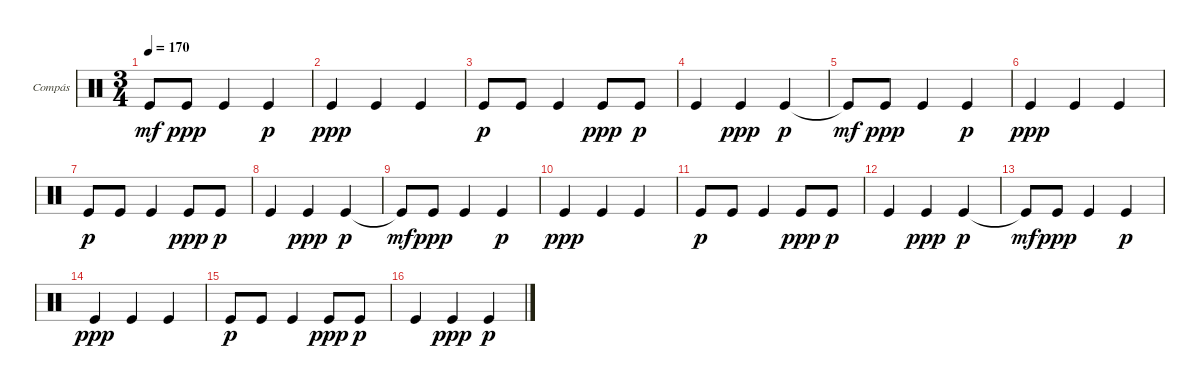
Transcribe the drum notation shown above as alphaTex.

\defaultSystemsLayout 4
\bracketExtendMode groupsimilarinstruments
\firstSystemTrackNameOrientation horizontal
\otherSystemsTrackNameOrientation horizontal
\track ("Compás" "Compás") {instrument percussion}
\staff {score}
\articulation defaults
\ts (3 4)
\tempo 170
\clef neutral
\ks c "Kick (hit)"{t}.8{dy mf} "Kick (hit)".8{dy ppp} "Kick (hit)".4 "Kick (hit)".4{dy p}
|
"Kick (hit)".4{dy ppp} "Kick (hit)".4 "Kick (hit)".4 |
"Kick (hit)".8{dy p} "Kick (hit)".8 "Kick (hit)".4 "Kick (hit)".8{dy ppp} "Kick (hit)".8{dy p} |
"Kick (hit)".4 "Kick (hit)".4{dy ppp} "Kick (hit)".4{dy p} |
"Kick (hit)"{t}.8{dy mf} "Kick (hit)".8{dy ppp} "Kick (hit)".4 "Kick (hit)".4{dy p} |
"Kick (hit)".4{dy ppp} "Kick (hit)".4 "Kick (hit)".4 |
"Kick (hit)".8{dy p} "Kick (hit)".8 "Kick (hit)".4 "Kick (hit)".8{dy ppp} "Kick (hit)".8{dy p} |
"Kick (hit)".4 "Kick (hit)".4{dy ppp} "Kick (hit)".4{dy p} |
"Kick (hit)"{t}.8{dy mf} "Kick (hit)".8{dy ppp} "Kick (hit)".4 "Kick (hit)".4{dy p} |
"Kick (hit)".4{dy ppp} "Kick (hit)".4 "Kick (hit)".4 |
"Kick (hit)".8{dy p} "Kick (hit)".8 "Kick (hit)".4 "Kick (hit)".8{dy ppp} "Kick (hit)".8{dy p} |
"Kick (hit)".4 "Kick (hit)".4{dy ppp} "Kick (hit)".4{dy p} |
"Kick (hit)"{t}.8{dy mf} "Kick (hit)".8{dy ppp} "Kick (hit)".4 "Kick (hit)".4{dy p} |
"Kick (hit)".4{dy ppp} "Kick (hit)".4 "Kick (hit)".4 |
"Kick (hit)".8{dy p} "Kick (hit)".8 "Kick (hit)".4 "Kick (hit)".8{dy ppp} "Kick (hit)".8{dy p} |
"Kick (hit)".4 "Kick (hit)".4{dy ppp} "Kick (hit)".4{dy p}
